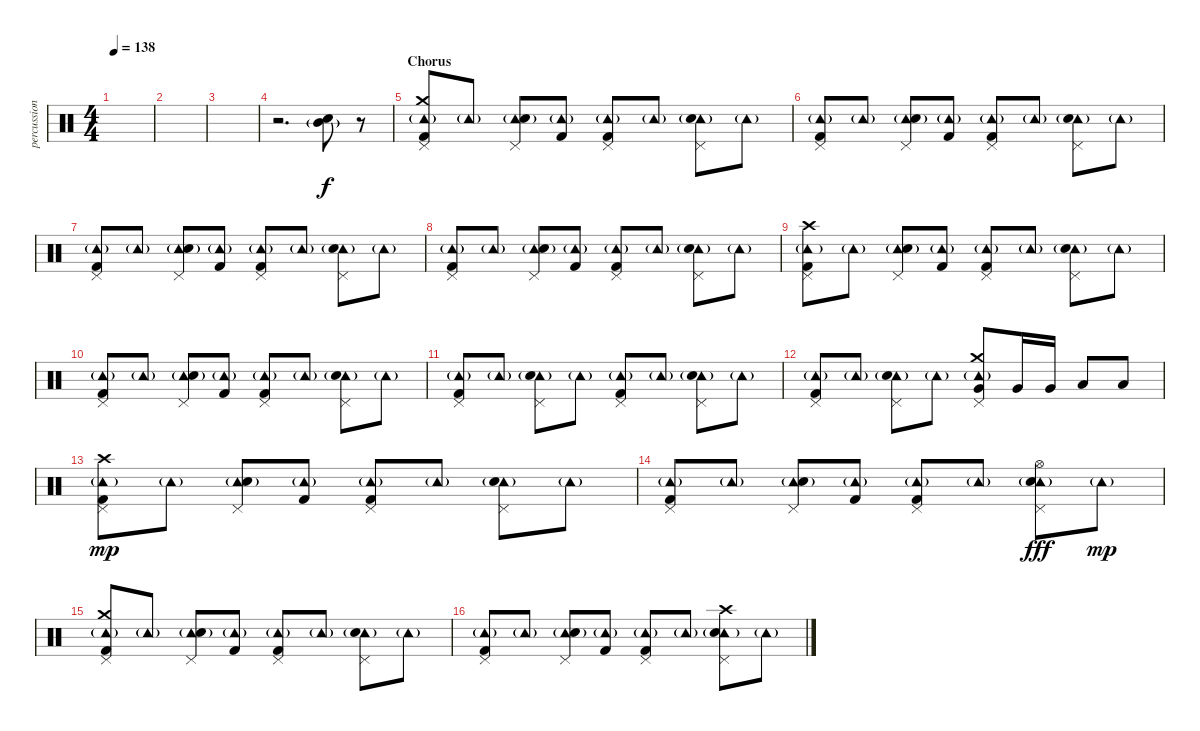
\track ("percussion - vom" "percussion") {instrument percussion}
\staff {score}
\articulation defaults
\ts (4 4)
\tempo 138
\clef neutral
\ks c
|
|
|
r.2{d} ("Mid Tom (hit)"{g} "Snare (hit) 2").8 r.8 |
\section ("" "Chorus")
("Pedal Hi-Hat (hit)" "Tambourine (hit)"{g} "Crash medium (hit)" "Kick (hit) 2").8 "Tambourine (hit)"{g}.8 ("Pedal Hi-Hat (hit)" "Tambourine (hit)"{g} "Snare (hit) 2").8 ("Tambourine (hit)"{g} "Kick (hit) 2").8 ("Pedal Hi-Hat (hit)" "Tambourine (hit)"{g} "Kick (hit) 2").8 "Tambourine (hit)"{g}.8 ("Pedal Hi-Hat (hit)" "Tambourine (hit)"{g} "Snare (hit) 2").8 "Tambourine (hit)"{g}.8 |
("Pedal Hi-Hat (hit)" "Tambourine (hit)"{g} "Kick (hit) 2").8 "Tambourine (hit)"{g}.8 ("Pedal Hi-Hat (hit)" "Tambourine (hit)"{g} "Snare (hit) 2").8 ("Tambourine (hit)"{g} "Kick (hit) 2").8 ("Pedal Hi-Hat (hit)" "Tambourine (hit)"{g} "Kick (hit) 2").8 "Tambourine (hit)"{g}.8 ("Pedal Hi-Hat (hit)" "Tambourine (hit)"{g} "Snare (hit) 2").8 "Tambourine (hit)"{g}.8 |
("Pedal Hi-Hat (hit)" "Tambourine (hit)"{g} "Kick (hit) 2").8 "Tambourine (hit)"{g}.8 ("Pedal Hi-Hat (hit)" "Tambourine (hit)"{g} "Snare (hit) 2").8 ("Tambourine (hit)"{g} "Kick (hit) 2").8 ("Pedal Hi-Hat (hit)" "Tambourine (hit)"{g} "Kick (hit) 2").8 "Tambourine (hit)"{g}.8 ("Pedal Hi-Hat (hit)" "Tambourine (hit)"{g} "Snare (hit) 2").8 "Tambourine (hit)"{g}.8 |
("Pedal Hi-Hat (hit)" "Tambourine (hit)"{g} "Kick (hit) 2").8 "Tambourine (hit)"{g}.8 ("Pedal Hi-Hat (hit)" "Tambourine (hit)"{g} "Snare (hit) 2").8 ("Tambourine (hit)"{g} "Kick (hit) 2").8 ("Pedal Hi-Hat (hit)" "Tambourine (hit)"{g} "Kick (hit) 2").8 "Tambourine (hit)"{g}.8 ("Pedal Hi-Hat (hit)" "Tambourine (hit)"{g} "Snare (hit) 2").8 "Tambourine (hit)"{g}.8 |
("Pedal Hi-Hat (hit)" "Tambourine (hit)"{g} "Crash high (hit)" "Kick (hit) 2").8 "Tambourine (hit)"{g}.8 ("Pedal Hi-Hat (hit)" "Tambourine (hit)"{g} "Snare (hit) 2").8 ("Tambourine (hit)"{g} "Kick (hit) 2").8 ("Pedal Hi-Hat (hit)" "Tambourine (hit)"{g} "Kick (hit) 2").8 "Tambourine (hit)"{g}.8 ("Pedal Hi-Hat (hit)" "Tambourine (hit)"{g} "Snare (hit) 2").8 "Tambourine (hit)"{g}.8 |
("Pedal Hi-Hat (hit)" "Tambourine (hit)"{g} "Kick (hit) 2").8 "Tambourine (hit)"{g}.8 ("Pedal Hi-Hat (hit)" "Tambourine (hit)"{g} "Snare (hit) 2").8 ("Tambourine (hit)"{g} "Kick (hit) 2").8 ("Pedal Hi-Hat (hit)" "Tambourine (hit)"{g} "Kick (hit) 2").8 "Tambourine (hit)"{g}.8 ("Pedal Hi-Hat (hit)" "Tambourine (hit)"{g} "Snare (hit) 2").8 "Tambourine (hit)"{g}.8 |
("Pedal Hi-Hat (hit)" "Tambourine (hit)"{g} "Kick (hit) 2").8 "Tambourine (hit)"{g}.8 ("Pedal Hi-Hat (hit)" "Tambourine (hit)"{g} "Snare (hit) 2").8 "Tambourine (hit)"{g}.8 ("Pedal Hi-Hat (hit)" "Tambourine (hit)"{g} "Kick (hit) 2").8 "Tambourine (hit)"{g}.8 ("Pedal Hi-Hat (hit)" "Tambourine (hit)"{g} "Snare (hit) 2").8 "Tambourine (hit)"{g}.8 |
("Pedal Hi-Hat (hit)" "Tambourine (hit)"{g} "Kick (hit) 2").8 "Tambourine (hit)"{g}.8 ("Pedal Hi-Hat (hit)" "Tambourine (hit)"{g} "Snare (hit) 2").8 "Tambourine (hit)"{g}.8 ("Pedal Hi-Hat (hit)" "Tambourine (hit)"{g} "Crash medium (hit)" "Very Low Tom (hit)").8 "Very Low Tom (hit)".16{dy f} "Very Low Tom (hit)".16 "Low Tom (hit)".8 "Low Tom (hit)".8 |
("Pedal Hi-Hat (hit)" "Tambourine (hit)"{g} "Crash high (hit)" "Kick (hit) 2").8{dy mp} "Tambourine (hit)"{g}.8 ("Pedal Hi-Hat (hit)" "Tambourine (hit)"{g} "Snare (hit) 2").8 ("Tambourine (hit)"{g} "Kick (hit) 2").8 ("Pedal Hi-Hat (hit)" "Tambourine (hit)"{g} "Kick (hit) 2").8 "Tambourine (hit)"{g}.8 ("Pedal Hi-Hat (hit)" "Tambourine (hit)"{g} "Snare (hit) 2").8 "Tambourine (hit)"{g}.8 |
("Pedal Hi-Hat (hit)" "Tambourine (hit)"{g} "Kick (hit) 2").8 "Tambourine (hit)"{g}.8 ("Pedal Hi-Hat (hit)" "Tambourine (hit)"{g} "Snare (hit) 2").8 ("Tambourine (hit)"{g} "Kick (hit) 2").8 ("Pedal Hi-Hat (hit)" "Tambourine (hit)"{g} "Kick (hit) 2").8 "Tambourine (hit)"{g}.8 ("Pedal Hi-Hat (hit)" "Tambourine (hit)"{g} "Hi-Hat (open)" "Snare (hit) 2").8{dy fff} "Tambourine (hit)"{g}.8{dy mp} |
("Pedal Hi-Hat (hit)" "Tambourine (hit)"{g} "Crash medium (hit)" "Kick (hit) 2").8 "Tambourine (hit)"{g}.8 ("Pedal Hi-Hat (hit)" "Tambourine (hit)"{g} "Snare (hit) 2").8 ("Tambourine (hit)"{g} "Kick (hit) 2").8 ("Pedal Hi-Hat (hit)" "Tambourine (hit)"{g} "Kick (hit) 2").8 "Tambourine (hit)"{g}.8 ("Pedal Hi-Hat (hit)" "Tambourine (hit)"{g} "Snare (hit) 2").8 "Tambourine (hit)"{g}.8 |
("Pedal Hi-Hat (hit)" "Tambourine (hit)"{g} "Kick (hit) 2").8 "Tambourine (hit)"{g}.8 ("Pedal Hi-Hat (hit)" "Tambourine (hit)"{g} "Snare (hit) 2").8 ("Tambourine (hit)"{g} "Kick (hit) 2").8 ("Pedal Hi-Hat (hit)" "Tambourine (hit)"{g} "Kick (hit) 2").8 "Tambourine (hit)"{g}.8 ("Pedal Hi-Hat (hit)" "Tambourine (hit)"{g} "Crash high (hit)" "Snare (hit) 2").8 "Tambourine (hit)"{g}.8
